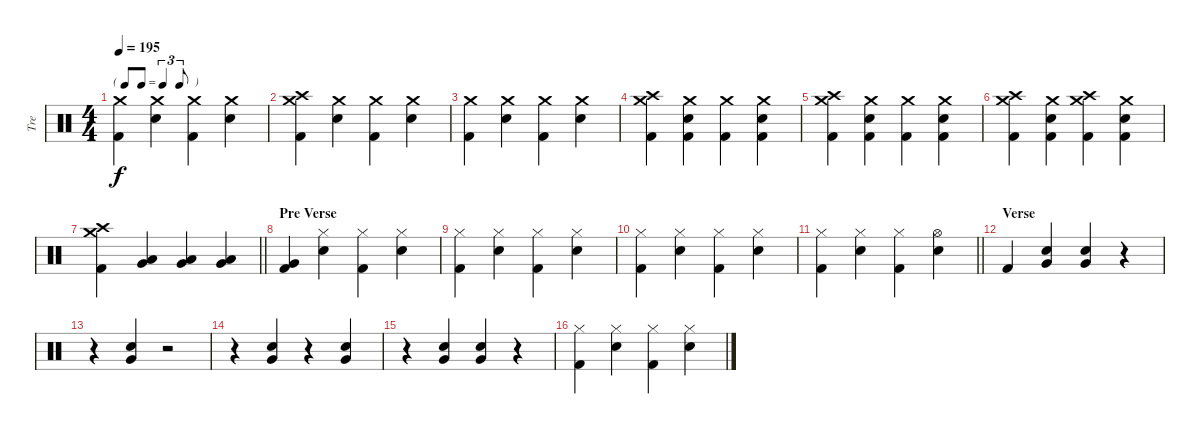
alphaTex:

\track ("Tre" "Tre") {instrument percussion}
\staff {score}
\articulation defaults
\ts (4 4)
\tf triplet8th
\tempo 195
\clef neutral
\ks c
("Crash medium (hit)" "Kick (hit) 2").4{dy f} ("Crash medium (hit)" "Snare (hit) 2").4 ("Crash medium (hit)" "Kick (hit) 2").4 ("Crash medium (hit)" "Snare (hit) 2").4 |
("Crash medium (hit)" "Crash high (hit)" "Kick (hit) 2").4 ("Crash medium (hit)" "Snare (hit) 2").4 ("Crash medium (hit)" "Kick (hit) 2").4 ("Crash medium (hit)" "Snare (hit) 2").4 |
("Crash medium (hit)" "Kick (hit) 2").4 ("Crash medium (hit)" "Snare (hit) 2").4 ("Crash medium (hit)" "Kick (hit) 2").4 ("Crash medium (hit)" "Snare (hit) 2").4 |
("Crash medium (hit)" "Crash high (hit)" "Kick (hit) 2").4 ("Crash medium (hit)" "Snare (hit) 2" "Kick (hit) 2").4 ("Crash medium (hit)" "Kick (hit) 2").4 ("Crash medium (hit)" "Snare (hit) 2" "Kick (hit) 2").4 |
("Crash medium (hit)" "Crash high (hit)" "Kick (hit) 2").4 ("Crash medium (hit)" "Snare (hit) 2" "Kick (hit) 2").4 ("Crash medium (hit)" "Kick (hit) 2").4 ("Crash medium (hit)" "Snare (hit) 2" "Kick (hit) 2").4 |
("Crash medium (hit)" "Crash high (hit)" "Kick (hit) 2").4 ("Crash medium (hit)" "Snare (hit) 2" "Kick (hit) 2").4 ("Crash medium (hit)" "Crash high (hit)" "Kick (hit) 2").4 ("Crash medium (hit)" "Snare (hit) 2" "Kick (hit) 2").4 |
\barLineRight lightlight
("Crash medium (hit)" "Crash high (hit)" "Kick (hit) 2").4 ("Very Low Tom (hit)" "Low Floor Tom (hit)").4 ("Very Low Tom (hit)" "Low Floor Tom (hit)").4 ("Very Low Tom (hit)" "Low Floor Tom (hit)").4 |
\section ("" "Pre Verse")
("Very Low Tom (hit)" "Kick (hit) 2").4 ("Hi-Hat (closed)" "Snare (hit) 2").4 ("Hi-Hat (closed)" "Kick (hit) 2").4 ("Hi-Hat (closed)" "Snare (hit) 2").4 |
("Hi-Hat (closed)" "Kick (hit) 2").4 ("Hi-Hat (closed)" "Snare (hit) 2").4 ("Hi-Hat (closed)" "Kick (hit) 2").4 ("Hi-Hat (closed)" "Snare (hit) 2").4 |
("Hi-Hat (closed)" "Kick (hit) 2").4 ("Hi-Hat (closed)" "Snare (hit) 2").4 ("Hi-Hat (closed)" "Kick (hit) 2").4 ("Hi-Hat (closed)" "Snare (hit) 2").4 |
\barLineRight lightlight
("Hi-Hat (closed)" "Kick (hit) 2").4 ("Hi-Hat (closed)" "Snare (hit) 2").4 ("Hi-Hat (closed)" "Kick (hit) 2").4 ("Hi-Hat (open)" "Snare (hit) 2").4 |
\section ("" "Verse")
"Kick (hit) 2".4 ("Snare (hit) 2" "Very Low Tom (hit)").4 ("Snare (hit) 2" "Very Low Tom (hit)").4 r.4 |
r.4 ("Snare (hit) 2" "Very Low Tom (hit)").4 r.2 |
r.4 ("Snare (hit) 2" "Very Low Tom (hit)").4 r.4 ("Snare (hit) 2" "Very Low Tom (hit)").4 |
r.4 ("Snare (hit) 2" "Very Low Tom (hit)").4 ("Snare (hit) 2" "Very Low Tom (hit)").4 r.4 |
("Hi-Hat (closed)" "Kick (hit) 2").4 ("Hi-Hat (closed)" "Snare (hit) 2").4 ("Hi-Hat (closed)" "Kick (hit) 2").4 ("Hi-Hat (closed)" "Snare (hit) 2").4
